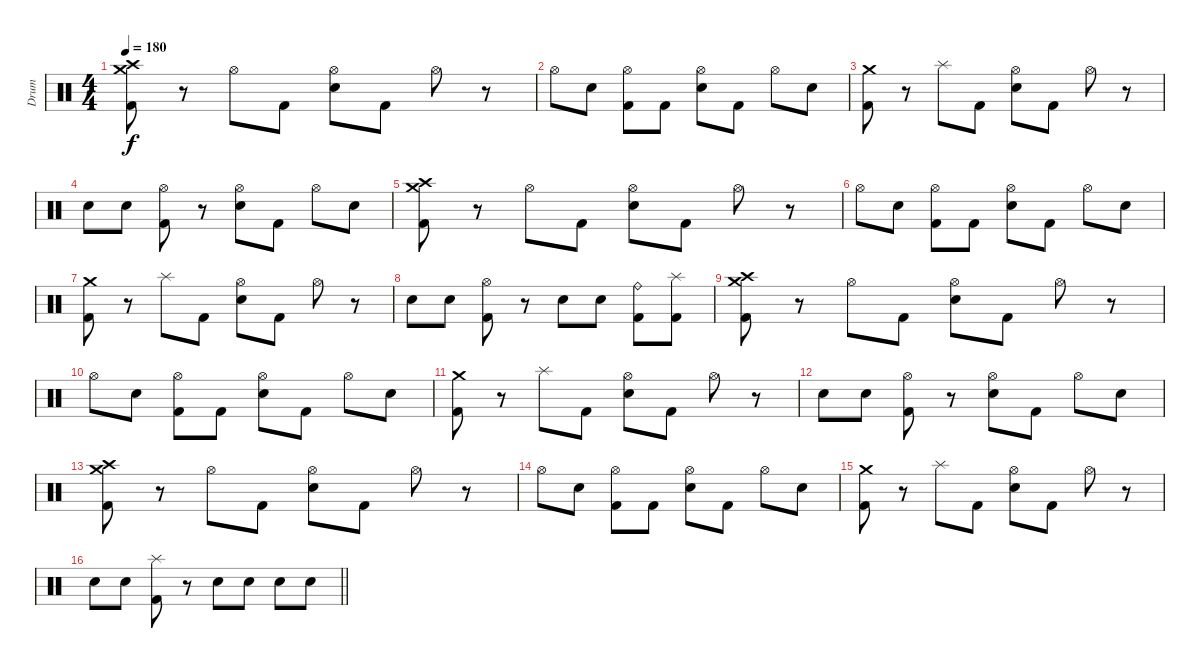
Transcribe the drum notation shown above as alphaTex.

\track ("Drum" "Drum") {instrument percussion}
\staff {score}
\articulation defaults
\ts (4 4)
\section ("" "")
\tempo 180
\clef neutral
\ks c
("Crash medium (hit)" "Crash high (hit)" "Kick (hit) 2").8{dy f} r.8 "Hi-Hat (open)".8 "Kick (hit) 2".8 ("Hi-Hat (open)" "Snare (hit) 2").8 "Kick (hit) 2".8 "Hi-Hat (open)".8 r.8 |
"Hi-Hat (open)".8 "Snare (hit) 2".8 ("Hi-Hat (open)" "Kick (hit) 2").8 "Kick (hit) 2".8 ("Hi-Hat (open)" "Snare (hit) 2").8 "Kick (hit) 2".8 "Hi-Hat (open)".8 "Snare (hit) 2".8 |
("Crash medium (hit)" "Kick (hit) 2").8 r.8 "Splash (hit)".8 "Kick (hit) 2".8 ("Hi-Hat (open)" "Snare (hit) 2").8 "Kick (hit) 2".8 "Hi-Hat (open)".8 r.8 |
"Snare (hit) 2".8 "Snare (hit) 2".8 ("Hi-Hat (open)" "Kick (hit) 2").8 r.8 ("Hi-Hat (open)" "Snare (hit) 2").8 "Kick (hit) 2".8 "Hi-Hat (open)".8 "Snare (hit) 2".8 |
("Crash medium (hit)" "Crash high (hit)" "Kick (hit) 2").8 r.8 "Hi-Hat (open)".8 "Kick (hit) 2".8 ("Hi-Hat (open)" "Snare (hit) 2").8 "Kick (hit) 2".8 "Hi-Hat (open)".8 r.8 |
"Hi-Hat (open)".8 "Snare (hit) 2".8 ("Hi-Hat (open)" "Kick (hit) 2").8 "Kick (hit) 2".8 ("Hi-Hat (open)" "Snare (hit) 2").8 "Kick (hit) 2".8 "Hi-Hat (open)".8 "Snare (hit) 2".8 |
("Crash medium (hit)" "Kick (hit) 2").8 r.8 "Splash (hit)".8 "Kick (hit) 2".8 ("Hi-Hat (open)" "Snare (hit) 2").8 "Kick (hit) 2".8 "Hi-Hat (open)".8 r.8 |
"Snare (hit) 2".8 "Snare (hit) 2".8 ("Hi-Hat (open)" "Kick (hit) 2").8 r.8 "Snare (hit) 2".8 "Snare (hit) 2".8 ("Ride (bell)" "Kick (hit) 2").8 ("Splash (hit)" "Kick (hit) 2").8 |
("Crash medium (hit)" "Crash high (hit)" "Kick (hit) 2").8 r.8 "Hi-Hat (open)".8 "Kick (hit) 2".8 ("Hi-Hat (open)" "Snare (hit) 2").8 "Kick (hit) 2".8 "Hi-Hat (open)".8 r.8 |
"Hi-Hat (open)".8 "Snare (hit) 2".8 ("Hi-Hat (open)" "Kick (hit) 2").8 "Kick (hit) 2".8 ("Hi-Hat (open)" "Snare (hit) 2").8 "Kick (hit) 2".8 "Hi-Hat (open)".8 "Snare (hit) 2".8 |
("Crash medium (hit)" "Kick (hit) 2").8 r.8 "Splash (hit)".8 "Kick (hit) 2".8 ("Hi-Hat (open)" "Snare (hit) 2").8 "Kick (hit) 2".8 "Hi-Hat (open)".8 r.8 |
"Snare (hit) 2".8 "Snare (hit) 2".8 ("Hi-Hat (open)" "Kick (hit) 2").8 r.8 ("Hi-Hat (open)" "Snare (hit) 2").8 "Kick (hit) 2".8 "Hi-Hat (open)".8 "Snare (hit) 2".8 |
("Crash medium (hit)" "Crash high (hit)" "Kick (hit) 2").8 r.8 "Hi-Hat (open)".8 "Kick (hit) 2".8 ("Hi-Hat (open)" "Snare (hit) 2").8 "Kick (hit) 2".8 "Hi-Hat (open)".8 r.8 |
"Hi-Hat (open)".8 "Snare (hit) 2".8 ("Hi-Hat (open)" "Kick (hit) 2").8 "Kick (hit) 2".8 ("Hi-Hat (open)" "Snare (hit) 2").8 "Kick (hit) 2".8 "Hi-Hat (open)".8 "Snare (hit) 2".8 |
("Crash medium (hit)" "Kick (hit) 2").8 r.8 "Splash (hit)".8 "Kick (hit) 2".8 ("Hi-Hat (open)" "Snare (hit) 2").8 "Kick (hit) 2".8 "Hi-Hat (open)".8 r.8 |
\barLineRight lightlight "Snare (hit) 2".8 "Snare (hit) 2".8
("Splash (hit)" "Kick (hit) 2").8 r.8 "Snare (hit) 2".8 "Snare (hit) 2".8 "Snare (hit) 2".8 "Snare (hit) 2".8
